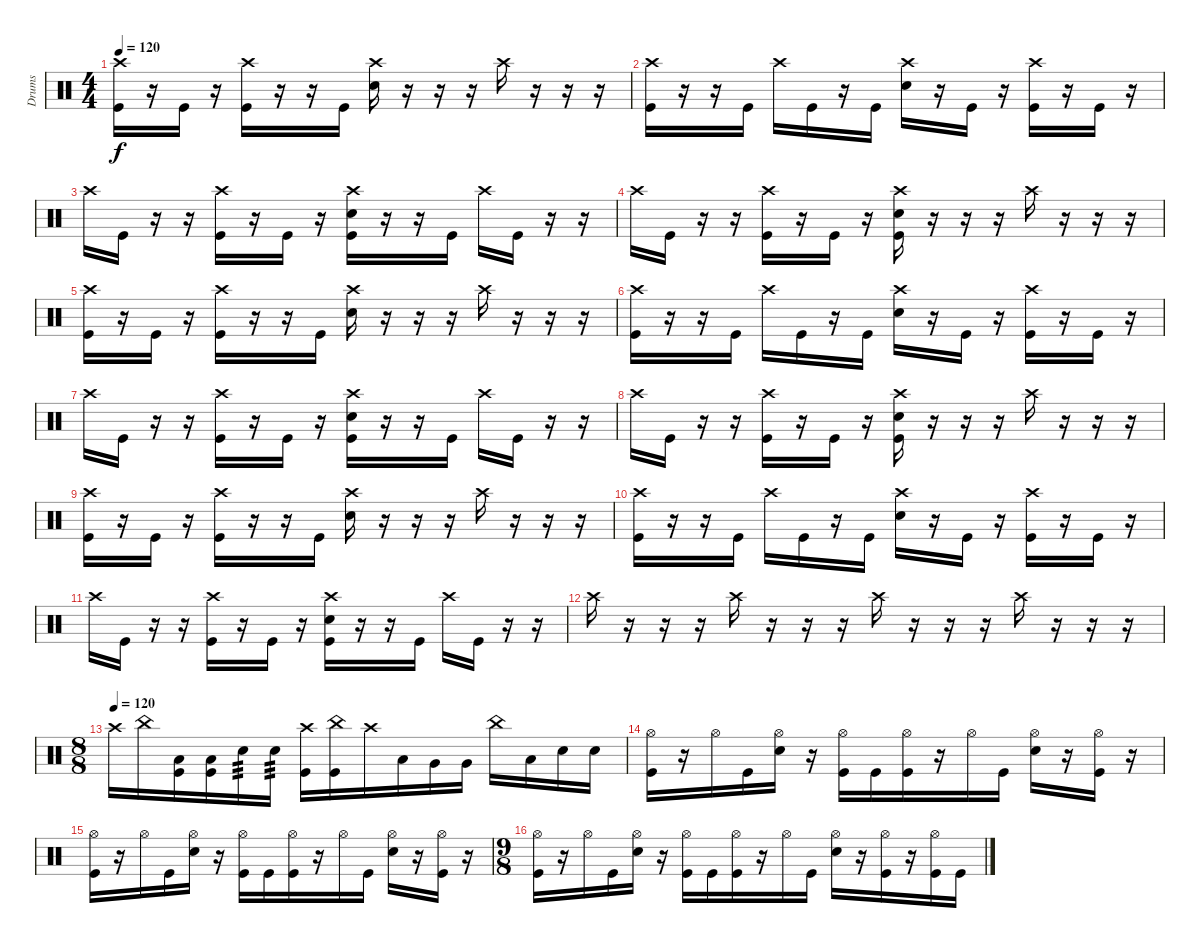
\track ("Drums" "Drums") {instrument percussion}
\staff {score}
\articulation defaults
\ts (4 4)
\tempo 120
\clef neutral
\ks c
("Crash high (hit)" "Kick (hit)").16{dy f} r.16 "Kick (hit)".16 r.16 ("Crash high (hit)" "Kick (hit)").16 r.16 r.16 "Kick (hit)".16 ("Crash high (hit)" "Electric Snare (hit)").16 r.16 r.16 r.16 "Crash high (hit)".16 r.16 r.16 r.16 |
("Crash high (hit)" "Kick (hit)").16 r.16 r.16 "Kick (hit)".16 "Crash high (hit)".16 "Kick (hit)".16 r.16 "Kick (hit)".16 ("Crash high (hit)" "Electric Snare (hit)").16 r.16 "Kick (hit)".16 r.16 ("Crash high (hit)" "Kick (hit)").16 r.16 "Kick (hit)".16 r.16 |
"Crash high (hit)".16 "Kick (hit)".16 r.16 r.16 ("Crash high (hit)" "Kick (hit)").16 r.16 "Kick (hit)".16 r.16 ("Crash high (hit)" "Electric Snare (hit)" "Kick (hit)").16 r.16 r.16 "Kick (hit)".16 "Crash high (hit)".16 "Kick (hit)".16 r.16 r.16 |
"Crash high (hit)".16 "Kick (hit)".16 r.16 r.16 ("Crash high (hit)" "Kick (hit)").16 r.16 "Kick (hit)".16 r.16 ("Crash high (hit)" "Electric Snare (hit)" "Kick (hit)").16 r.16 r.16 r.16 "Crash high (hit)".16 r.16 r.16 r.16 |
("Crash high (hit)" "Kick (hit)").16 r.16 "Kick (hit)".16 r.16 ("Crash high (hit)" "Kick (hit)").16 r.16 r.16 "Kick (hit)".16 ("Crash high (hit)" "Electric Snare (hit)").16 r.16 r.16 r.16 "Crash high (hit)".16 r.16 r.16 r.16 |
("Crash high (hit)" "Kick (hit)").16 r.16 r.16 "Kick (hit)".16 "Crash high (hit)".16 "Kick (hit)".16 r.16 "Kick (hit)".16 ("Crash high (hit)" "Electric Snare (hit)").16 r.16 "Kick (hit)".16 r.16 ("Crash high (hit)" "Kick (hit)").16 r.16 "Kick (hit)".16 r.16 |
"Crash high (hit)".16 "Kick (hit)".16 r.16 r.16 ("Crash high (hit)" "Kick (hit)").16 r.16 "Kick (hit)".16 r.16 ("Crash high (hit)" "Electric Snare (hit)" "Kick (hit)").16 r.16 r.16 "Kick (hit)".16 "Crash high (hit)".16 "Kick (hit)".16 r.16 r.16 |
"Crash high (hit)".16 "Kick (hit)".16 r.16 r.16 ("Crash high (hit)" "Kick (hit)").16 r.16 "Kick (hit)".16 r.16 ("Crash high (hit)" "Electric Snare (hit)" "Kick (hit)").16 r.16 r.16 r.16 "Crash high (hit)".16 r.16 r.16 r.16 |
("Crash high (hit)" "Kick (hit)").16 r.16 "Kick (hit)".16 r.16 ("Crash high (hit)" "Kick (hit)").16 r.16 r.16 "Kick (hit)".16 ("Crash high (hit)" "Electric Snare (hit)").16 r.16 r.16 r.16 "Crash high (hit)".16 r.16 r.16 r.16 |
("Crash high (hit)" "Kick (hit)").16 r.16 r.16 "Kick (hit)".16 "Crash high (hit)".16 "Kick (hit)".16 r.16 "Kick (hit)".16 ("Crash high (hit)" "Electric Snare (hit)").16 r.16 "Kick (hit)".16 r.16 ("Crash high (hit)" "Kick (hit)").16 r.16 "Kick (hit)".16 r.16 |
"Crash high (hit)".16 "Kick (hit)".16 r.16 r.16 ("Crash high (hit)" "Kick (hit)").16 r.16 "Kick (hit)".16 r.16 ("Crash high (hit)" "Electric Snare (hit)" "Kick (hit)").16 r.16 r.16 "Kick (hit)".16 "Crash high (hit)".16 "Kick (hit)".16 r.16 r.16 |
"Crash high (hit)".16 r.16 r.16 r.16 "Crash high (hit)".16 r.16 r.16 r.16 "Crash high (hit)".16 r.16 r.16 r.16 "Crash high (hit)".16 r.16 r.16 r.16 |
\ts (8 8)
\tempo (120)
"Crash high (hit)".16 "China (hit)".16 ("Low Floor Tom (hit)" "Kick (hit)").16 ("Low Floor Tom (hit)" "Kick (hit)").16 "Electric Snare (hit)".16{tp 3} "Electric Snare (hit)".16{tp 3} ("Crash high (hit)" "Kick (hit)").16 ("China (hit)" "Kick (hit)").16 "Crash high (hit)".16 "Low Floor Tom (hit)".16 "Very Low Tom (hit)".16 "Very Low Tom (hit)".16 "China (hit)".16 "Low Tom (hit)".16 "Electric Snare (hit)".16 "Electric Snare (hit)".16 |
("Hi-Hat (open)" "Kick (hit)").16 r.16 "Hi-Hat (open)".16 "Kick (hit)".16 ("Hi-Hat (open)" "Electric Snare (hit)").16 r.16 ("Hi-Hat (open)" "Kick (hit)").16 "Kick (hit)".16 ("Hi-Hat (open)" "Kick (hit)").16 r.16 "Hi-Hat (open)".16 "Kick (hit)".16 ("Hi-Hat (open)" "Electric Snare (hit)").16 r.16 ("Hi-Hat (open)" "Kick (hit)").16 r.16 |
("Hi-Hat (open)" "Kick (hit)").16 r.16 "Hi-Hat (open)".16 "Kick (hit)".16 ("Hi-Hat (open)" "Electric Snare (hit)").16 r.16 ("Hi-Hat (open)" "Kick (hit)").16 "Kick (hit)".16 ("Hi-Hat (open)" "Kick (hit)").16 r.16 "Hi-Hat (open)".16 "Kick (hit)".16 ("Hi-Hat (open)" "Electric Snare (hit)").16 r.16 ("Hi-Hat (open)" "Kick (hit)").16 r.16 |
\ts (9 8)
("Hi-Hat (open)" "Kick (hit)").16 r.16 "Hi-Hat (open)".16 "Kick (hit)".16 ("Hi-Hat (open)" "Electric Snare (hit)").16 r.16 ("Hi-Hat (open)" "Kick (hit)").16 "Kick (hit)".16 ("Hi-Hat (open)" "Kick (hit)").16 r.16 "Hi-Hat (open)".16 "Kick (hit)".16 ("Hi-Hat (open)" "Electric Snare (hit)").16 r.16 ("Hi-Hat (open)" "Kick (hit)").16 r.16 ("Hi-Hat (open)" "Kick (hit)").16 "Kick (hit)".16
